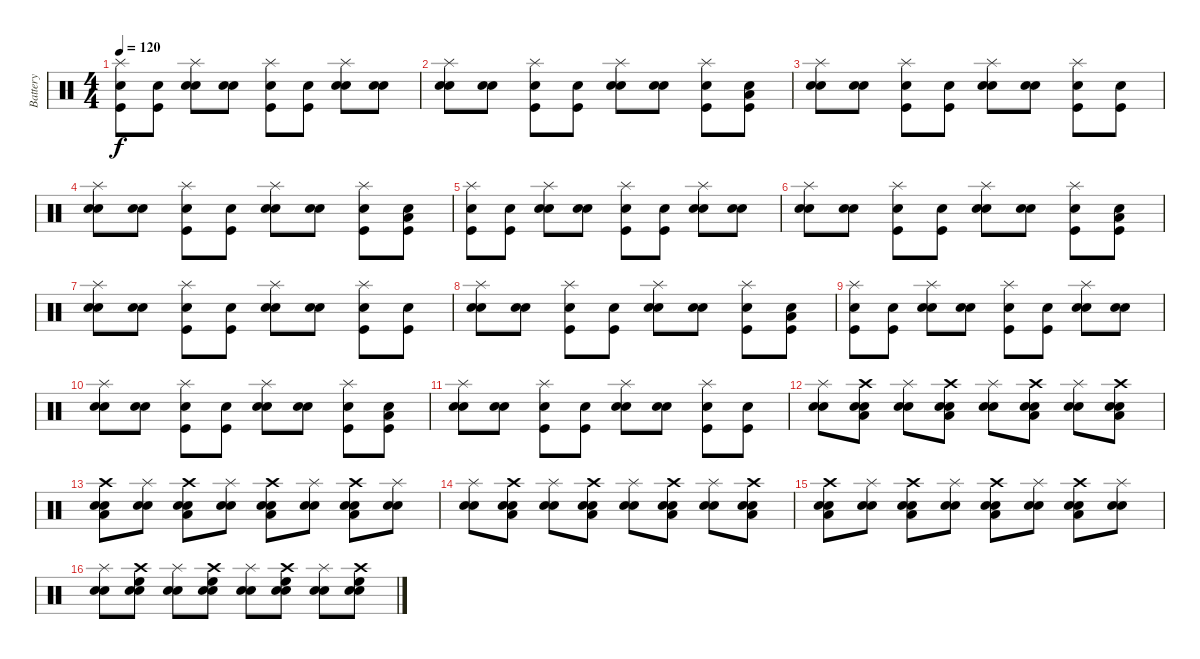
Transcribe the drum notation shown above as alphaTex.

\track ("Battery" "Battery") {instrument percussion}
\staff {score}
\articulation defaults
\ts (4 4)
\tempo 120
\clef neutral
\ks c
("Kick (hit)" "Electric Snare (hit)" "Splash (hit)").8{dy f} ("Kick (hit)" "Electric Snare (hit)").8 ("Snare (hit) 2" "Electric Snare (hit)" "Splash (hit)").8 ("Snare (hit) 2" "Electric Snare (hit)").8 ("Kick (hit)" "Electric Snare (hit)" "Splash (hit)").8 ("Kick (hit)" "Electric Snare (hit)").8 ("Snare (hit) 2" "Electric Snare (hit)" "Splash (hit)").8 ("Snare (hit) 2" "Electric Snare (hit)").8 |
("Snare (hit) 2" "Electric Snare (hit)" "Splash (hit)").8 ("Snare (hit) 2" "Electric Snare (hit)").8 ("Kick (hit)" "Electric Snare (hit)" "Splash (hit)").8 ("Kick (hit)" "Electric Snare (hit)").8 ("Snare (hit) 2" "Electric Snare (hit)" "Splash (hit)").8 ("Snare (hit) 2" "Electric Snare (hit)").8 ("Kick (hit)" "Electric Snare (hit)" "Splash (hit)").8 ("Kick (hit)" "Electric Snare (hit)" "Low Floor Tom (hit)").8 |
("Snare (hit) 2" "Electric Snare (hit)" "Splash (hit)").8 ("Snare (hit) 2" "Electric Snare (hit)").8 ("Kick (hit)" "Electric Snare (hit)" "Splash (hit)").8 ("Kick (hit)" "Electric Snare (hit)").8 ("Snare (hit) 2" "Electric Snare (hit)" "Splash (hit)").8 ("Snare (hit) 2" "Electric Snare (hit)").8 ("Kick (hit)" "Electric Snare (hit)" "Splash (hit)").8 ("Kick (hit)" "Electric Snare (hit)").8 |
("Snare (hit) 2" "Electric Snare (hit)" "Splash (hit)").8 ("Snare (hit) 2" "Electric Snare (hit)").8 ("Kick (hit)" "Electric Snare (hit)" "Splash (hit)").8 ("Kick (hit)" "Electric Snare (hit)").8 ("Snare (hit) 2" "Electric Snare (hit)" "Splash (hit)").8 ("Snare (hit) 2" "Electric Snare (hit)").8 ("Kick (hit)" "Electric Snare (hit)" "Splash (hit)").8 ("Kick (hit)" "Electric Snare (hit)" "Low Floor Tom (hit)").8 |
("Kick (hit)" "Electric Snare (hit)" "Splash (hit)").8 ("Kick (hit)" "Electric Snare (hit)").8 ("Snare (hit) 2" "Electric Snare (hit)" "Splash (hit)").8 ("Snare (hit) 2" "Electric Snare (hit)").8 ("Kick (hit)" "Electric Snare (hit)" "Splash (hit)").8 ("Kick (hit)" "Electric Snare (hit)").8 ("Snare (hit) 2" "Electric Snare (hit)" "Splash (hit)").8 ("Snare (hit) 2" "Electric Snare (hit)").8 |
("Snare (hit) 2" "Electric Snare (hit)" "Splash (hit)").8 ("Snare (hit) 2" "Electric Snare (hit)").8 ("Kick (hit)" "Electric Snare (hit)" "Splash (hit)").8 ("Kick (hit)" "Electric Snare (hit)").8 ("Snare (hit) 2" "Electric Snare (hit)" "Splash (hit)").8 ("Snare (hit) 2" "Electric Snare (hit)").8 ("Kick (hit)" "Electric Snare (hit)" "Splash (hit)").8 ("Kick (hit)" "Electric Snare (hit)" "Low Floor Tom (hit)").8 |
("Snare (hit) 2" "Electric Snare (hit)" "Splash (hit)").8 ("Snare (hit) 2" "Electric Snare (hit)").8 ("Kick (hit)" "Electric Snare (hit)" "Splash (hit)").8 ("Kick (hit)" "Electric Snare (hit)").8 ("Snare (hit) 2" "Electric Snare (hit)" "Splash (hit)").8 ("Snare (hit) 2" "Electric Snare (hit)").8 ("Kick (hit)" "Electric Snare (hit)" "Splash (hit)").8 ("Kick (hit)" "Electric Snare (hit)").8 |
("Snare (hit) 2" "Electric Snare (hit)" "Splash (hit)").8 ("Snare (hit) 2" "Electric Snare (hit)").8 ("Kick (hit)" "Electric Snare (hit)" "Splash (hit)").8 ("Kick (hit)" "Electric Snare (hit)").8 ("Snare (hit) 2" "Electric Snare (hit)" "Splash (hit)").8 ("Snare (hit) 2" "Electric Snare (hit)").8 ("Kick (hit)" "Electric Snare (hit)" "Splash (hit)").8 ("Kick (hit)" "Electric Snare (hit)" "Low Floor Tom (hit)").8 |
("Kick (hit)" "Electric Snare (hit)" "Splash (hit)").8 ("Kick (hit)" "Electric Snare (hit)").8 ("Snare (hit) 2" "Electric Snare (hit)" "Splash (hit)").8 ("Snare (hit) 2" "Electric Snare (hit)").8 ("Kick (hit)" "Electric Snare (hit)" "Splash (hit)").8 ("Kick (hit)" "Electric Snare (hit)").8 ("Snare (hit) 2" "Electric Snare (hit)" "Splash (hit)").8 ("Snare (hit) 2" "Electric Snare (hit)").8 |
("Snare (hit) 2" "Electric Snare (hit)" "Splash (hit)").8 ("Snare (hit) 2" "Electric Snare (hit)").8 ("Kick (hit)" "Electric Snare (hit)" "Splash (hit)").8 ("Kick (hit)" "Electric Snare (hit)").8 ("Snare (hit) 2" "Electric Snare (hit)" "Splash (hit)").8 ("Snare (hit) 2" "Electric Snare (hit)").8 ("Kick (hit)" "Electric Snare (hit)" "Splash (hit)").8 ("Kick (hit)" "Electric Snare (hit)" "Low Floor Tom (hit)").8 |
("Snare (hit) 2" "Electric Snare (hit)" "Splash (hit)").8 ("Snare (hit) 2" "Electric Snare (hit)").8 ("Kick (hit)" "Electric Snare (hit)" "Splash (hit)").8 ("Kick (hit)" "Electric Snare (hit)").8 ("Snare (hit) 2" "Electric Snare (hit)" "Splash (hit)").8 ("Snare (hit) 2" "Electric Snare (hit)").8 ("Kick (hit)" "Electric Snare (hit)" "Splash (hit)").8 ("Kick (hit)" "Electric Snare (hit)").8 |
("Electric Snare (hit)" "Splash (hit)" "Snare (hit) 2").8 ("Electric Snare (hit)" "Snare (hit) 2" "Low Floor Tom (hit)" "Crash high (hit)").8 ("Electric Snare (hit)" "Splash (hit)" "Snare (hit) 2").8 ("Electric Snare (hit)" "Snare (hit) 2" "Low Floor Tom (hit)" "Crash high (hit)").8 ("Electric Snare (hit)" "Splash (hit)" "Snare (hit) 2").8 ("Electric Snare (hit)" "Snare (hit) 2" "Low Floor Tom (hit)" "Crash high (hit)").8 ("Electric Snare (hit)" "Splash (hit)" "Snare (hit) 2").8 ("Electric Snare (hit)" "Snare (hit) 2" "Low Floor Tom (hit)" "Crash high (hit)").8 |
("Electric Snare (hit)" "Snare (hit) 2" "Low Floor Tom (hit)" "Crash high (hit)").8 ("Electric Snare (hit)" "Splash (hit)" "Snare (hit) 2").8 ("Electric Snare (hit)" "Snare (hit) 2" "Low Floor Tom (hit)" "Crash high (hit)").8 ("Electric Snare (hit)" "Splash (hit)" "Snare (hit) 2").8 ("Electric Snare (hit)" "Snare (hit) 2" "Low Floor Tom (hit)" "Crash high (hit)").8 ("Electric Snare (hit)" "Splash (hit)" "Snare (hit) 2").8 ("Electric Snare (hit)" "Snare (hit) 2" "Low Floor Tom (hit)" "Crash high (hit)").8 ("Electric Snare (hit)" "Splash (hit)" "Snare (hit) 2").8 |
("Electric Snare (hit)" "Splash (hit)" "Snare (hit) 2").8 ("Electric Snare (hit)" "Snare (hit) 2" "Low Floor Tom (hit)" "Crash high (hit)").8 ("Electric Snare (hit)" "Splash (hit)" "Snare (hit) 2").8 ("Electric Snare (hit)" "Snare (hit) 2" "Low Floor Tom (hit)" "Crash high (hit)").8 ("Electric Snare (hit)" "Splash (hit)" "Snare (hit) 2").8 ("Electric Snare (hit)" "Snare (hit) 2" "Low Floor Tom (hit)" "Crash high (hit)").8 ("Electric Snare (hit)" "Splash (hit)" "Snare (hit) 2").8 ("Electric Snare (hit)" "Snare (hit) 2" "Low Floor Tom (hit)" "Crash high (hit)").8 |
("Electric Snare (hit)" "Snare (hit) 2" "Low Floor Tom (hit)" "Crash high (hit)").8 ("Electric Snare (hit)" "Splash (hit)" "Snare (hit) 2").8 ("Electric Snare (hit)" "Snare (hit) 2" "Low Floor Tom (hit)" "Crash high (hit)").8 ("Electric Snare (hit)" "Splash (hit)" "Snare (hit) 2").8 ("Electric Snare (hit)" "Snare (hit) 2" "Low Floor Tom (hit)" "Crash high (hit)").8 ("Electric Snare (hit)" "Splash (hit)" "Snare (hit) 2").8 ("Electric Snare (hit)" "Snare (hit) 2" "Low Floor Tom (hit)" "Crash high (hit)").8 ("Electric Snare (hit)" "Splash (hit)" "Snare (hit) 2").8 |
("Snare (hit) 2" "Splash (hit)" "Snare (hit) 2").8 ("Snare (hit) 2" "Electric Snare (hit)" "High Floor Tom (hit)" "Crash high (hit)").8 ("Snare (hit) 2" "Splash (hit)" "Snare (hit) 2").8 ("Snare (hit) 2" "Electric Snare (hit)" "High Floor Tom (hit)" "Crash high (hit)").8 ("Snare (hit) 2" "Splash (hit)" "Snare (hit) 2").8 ("Snare (hit) 2" "Electric Snare (hit)" "High Floor Tom (hit)" "Crash high (hit)").8 ("Snare (hit) 2" "Splash (hit)" "Snare (hit) 2").8 ("Snare (hit) 2" "Electric Snare (hit)" "High Floor Tom (hit)" "Crash high (hit)").8
